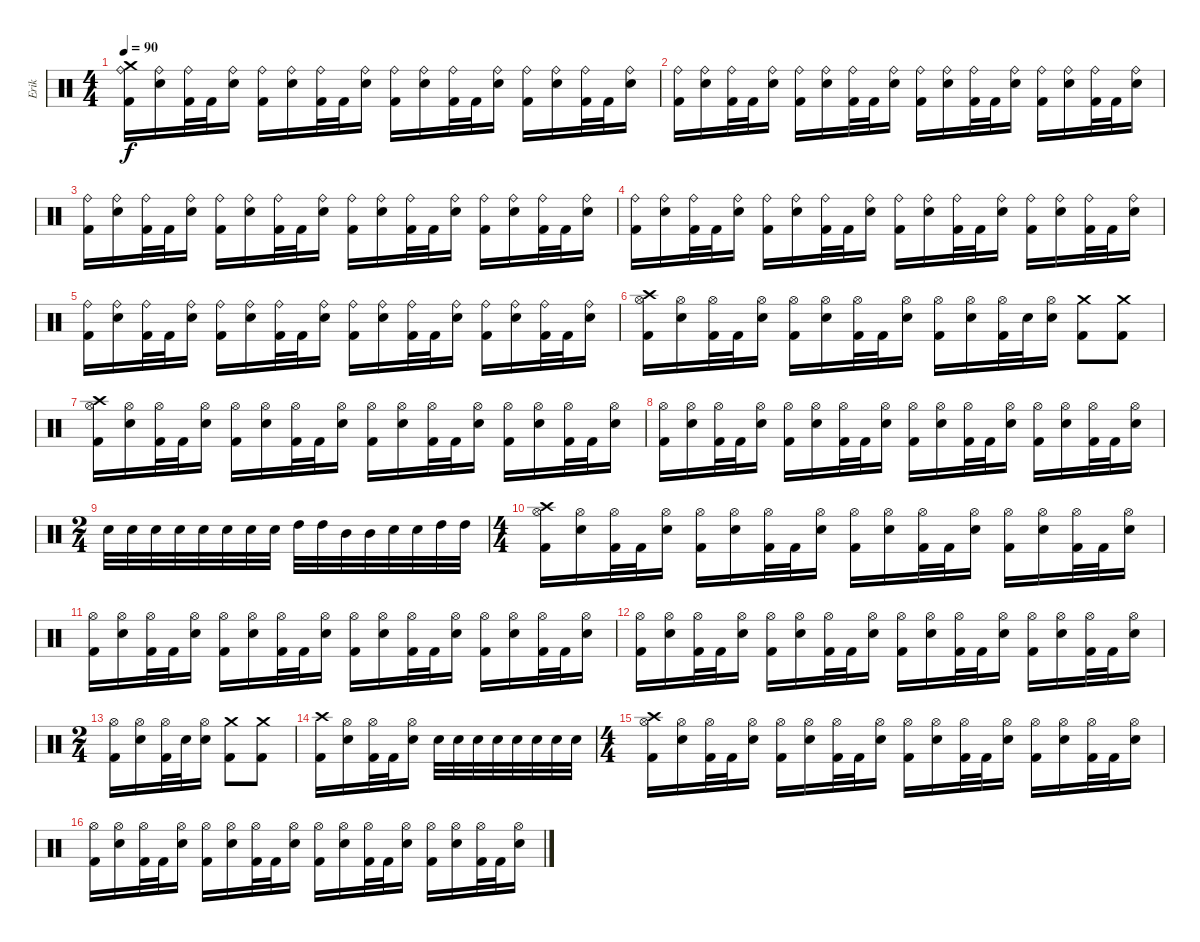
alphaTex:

\track ("Erik" "Erik") {instrument percussion}
\staff {score}
\articulation defaults
\ts (4 4)
\tempo 90
\clef neutral
\ks c
("Crash medium (hit)" "Ride (bell)" "Kick (hit) 2").16{dy f} ("Ride (bell)" "Electric Snare (hit)").16 ("Ride (bell)" "Kick (hit) 2").32 "Kick (hit) 2".32 ("Ride (bell)" "Electric Snare (hit)").16 ("Ride (bell)" "Kick (hit) 2").16 ("Ride (bell)" "Electric Snare (hit)").16 ("Ride (bell)" "Kick (hit) 2").32 "Kick (hit) 2".32 ("Ride (bell)" "Electric Snare (hit)").16 ("Ride (bell)" "Kick (hit) 2").16 ("Ride (bell)" "Electric Snare (hit)").16 ("Ride (bell)" "Kick (hit) 2").32 "Kick (hit) 2".32 ("Ride (bell)" "Electric Snare (hit)").16 ("Ride (bell)" "Kick (hit) 2").16 ("Ride (bell)" "Electric Snare (hit)").16 ("Ride (bell)" "Kick (hit) 2").32 "Kick (hit) 2".32 ("Ride (bell)" "Electric Snare (hit)").16 |
("Ride (bell)" "Kick (hit) 2").16 ("Ride (bell)" "Electric Snare (hit)").16 ("Ride (bell)" "Kick (hit) 2").32 "Kick (hit) 2".32 ("Ride (bell)" "Electric Snare (hit)").16 ("Ride (bell)" "Kick (hit) 2").16 ("Ride (bell)" "Electric Snare (hit)").16 ("Ride (bell)" "Kick (hit) 2").32 "Kick (hit) 2".32 ("Ride (bell)" "Electric Snare (hit)").16 ("Ride (bell)" "Kick (hit) 2").16 ("Ride (bell)" "Electric Snare (hit)").16 ("Ride (bell)" "Kick (hit) 2").32 "Kick (hit) 2".32 ("Ride (bell)" "Electric Snare (hit)").16 ("Ride (bell)" "Kick (hit) 2").16 ("Ride (bell)" "Electric Snare (hit)").16 ("Ride (bell)" "Kick (hit) 2").32 "Kick (hit) 2".32 ("Ride (bell)" "Electric Snare (hit)").16 |
("Ride (bell)" "Kick (hit) 2").16 ("Ride (bell)" "Electric Snare (hit)").16 ("Ride (bell)" "Kick (hit) 2").32 "Kick (hit) 2".32 ("Ride (bell)" "Electric Snare (hit)").16 ("Ride (bell)" "Kick (hit) 2").16 ("Ride (bell)" "Electric Snare (hit)").16 ("Ride (bell)" "Kick (hit) 2").32 "Kick (hit) 2".32 ("Ride (bell)" "Electric Snare (hit)").16 ("Ride (bell)" "Kick (hit) 2").16 ("Ride (bell)" "Electric Snare (hit)").16 ("Ride (bell)" "Kick (hit) 2").32 "Kick (hit) 2".32 ("Ride (bell)" "Electric Snare (hit)").16 ("Ride (bell)" "Kick (hit) 2").16 ("Ride (bell)" "Electric Snare (hit)").16 ("Ride (bell)" "Kick (hit) 2").32 "Kick (hit) 2".32 ("Ride (bell)" "Electric Snare (hit)").16 |
("Ride (bell)" "Kick (hit) 2").16 ("Ride (bell)" "Electric Snare (hit)").16 ("Ride (bell)" "Kick (hit) 2").32 "Kick (hit) 2".32 ("Ride (bell)" "Electric Snare (hit)").16 ("Ride (bell)" "Kick (hit) 2").16 ("Ride (bell)" "Electric Snare (hit)").16 ("Ride (bell)" "Kick (hit) 2").32 "Kick (hit) 2".32 ("Ride (bell)" "Electric Snare (hit)").16 ("Ride (bell)" "Kick (hit) 2").16 ("Ride (bell)" "Electric Snare (hit)").16 ("Ride (bell)" "Kick (hit) 2").32 "Kick (hit) 2".32 ("Ride (bell)" "Electric Snare (hit)").16 ("Ride (bell)" "Kick (hit) 2").16 ("Ride (bell)" "Electric Snare (hit)").16 ("Ride (bell)" "Kick (hit) 2").32 "Kick (hit) 2".32 ("Ride (bell)" "Electric Snare (hit)").16 |
("Ride (bell)" "Kick (hit) 2").16 ("Ride (bell)" "Electric Snare (hit)").16 ("Ride (bell)" "Kick (hit) 2").32 "Kick (hit) 2".32 ("Ride (bell)" "Electric Snare (hit)").16 ("Ride (bell)" "Kick (hit) 2").16 ("Ride (bell)" "Electric Snare (hit)").16 ("Ride (bell)" "Kick (hit) 2").32 "Kick (hit) 2".32 ("Ride (bell)" "Electric Snare (hit)").16 ("Ride (bell)" "Kick (hit) 2").16 ("Ride (bell)" "Electric Snare (hit)").16 ("Ride (bell)" "Kick (hit) 2").32 "Kick (hit) 2".32 ("Ride (bell)" "Electric Snare (hit)").16 ("Ride (bell)" "Kick (hit) 2").16 ("Ride (bell)" "Electric Snare (hit)").16 ("Ride (bell)" "Kick (hit) 2").32 "Kick (hit) 2".32 ("Ride (bell)" "Electric Snare (hit)").16 |
("Crash high (hit)" "Hi-Hat (open)" "Kick (hit) 2").16 ("Hi-Hat (open)" "Electric Snare (hit)").16 ("Hi-Hat (open)" "Kick (hit) 2").32 "Kick (hit) 2".32 ("Hi-Hat (open)" "Electric Snare (hit)").16 ("Hi-Hat (open)" "Kick (hit) 2").16 ("Hi-Hat (open)" "Electric Snare (hit)").16 ("Hi-Hat (open)" "Kick (hit) 2").32 "Kick (hit) 2".32 ("Hi-Hat (open)" "Electric Snare (hit)").16 ("Hi-Hat (open)" "Kick (hit) 2").16 ("Hi-Hat (open)" "Electric Snare (hit)").16 ("Hi-Hat (open)" "Kick (hit) 2").32 "Electric Snare (hit)".32 ("Hi-Hat (open)" "Electric Snare (hit)").16 ("Crash medium (hit)" "Kick (hit) 2").8 ("Crash medium (hit)" "Kick (hit) 2").8 |
("Crash high (hit)" "Hi-Hat (open)" "Kick (hit) 2").16 ("Hi-Hat (open)" "Electric Snare (hit)").16 ("Hi-Hat (open)" "Kick (hit) 2").32 "Kick (hit) 2".32 ("Hi-Hat (open)" "Electric Snare (hit)").16 ("Hi-Hat (open)" "Kick (hit) 2").16 ("Hi-Hat (open)" "Electric Snare (hit)").16 ("Hi-Hat (open)" "Kick (hit) 2").32 "Kick (hit) 2".32 ("Hi-Hat (open)" "Electric Snare (hit)").16 ("Hi-Hat (open)" "Kick (hit) 2").16 ("Hi-Hat (open)" "Electric Snare (hit)").16 ("Hi-Hat (open)" "Kick (hit) 2").32 "Kick (hit) 2".32 ("Hi-Hat (open)" "Electric Snare (hit)").16 ("Hi-Hat (open)" "Kick (hit) 2").16 ("Hi-Hat (open)" "Electric Snare (hit)").16 ("Hi-Hat (open)" "Kick (hit) 2").32 "Kick (hit) 2".32 ("Hi-Hat (open)" "Electric Snare (hit)").16 |
("Hi-Hat (open)" "Kick (hit) 2").16 ("Hi-Hat (open)" "Electric Snare (hit)").16 ("Hi-Hat (open)" "Kick (hit) 2").32 "Kick (hit) 2".32 ("Hi-Hat (open)" "Electric Snare (hit)").16 ("Hi-Hat (open)" "Kick (hit) 2").16 ("Hi-Hat (open)" "Electric Snare (hit)").16 ("Hi-Hat (open)" "Kick (hit) 2").32 "Kick (hit) 2".32 ("Hi-Hat (open)" "Electric Snare (hit)").16 ("Hi-Hat (open)" "Kick (hit) 2").16 ("Hi-Hat (open)" "Electric Snare (hit)").16 ("Hi-Hat (open)" "Kick (hit) 2").32 "Kick (hit) 2".32 ("Hi-Hat (open)" "Electric Snare (hit)").16 ("Hi-Hat (open)" "Kick (hit) 2").16 ("Hi-Hat (open)" "Electric Snare (hit)").16 ("Hi-Hat (open)" "Kick (hit) 2").32 "Kick (hit) 2".32 ("Hi-Hat (open)" "Electric Snare (hit)").16 |
\ts (2 4)
"Electric Snare (hit)".32 "Electric Snare (hit)".32 "Electric Snare (hit)".32 "Electric Snare (hit)".32 "Electric Snare (hit)".32 "Electric Snare (hit)".32 "Electric Snare (hit)".32 "Electric Snare (hit)".32 "High Tom (hit)".32 "High Tom (hit)".32 "Mid Tom (hit)".32 "Mid Tom (hit)".32 "Electric Snare (hit)".32 "Electric Snare (hit)".32 "High Tom (hit)".32 "High Tom (hit)".32 |
\ts (4 4)
("Crash high (hit)" "Hi-Hat (open)" "Kick (hit) 2").16 ("Hi-Hat (open)" "Electric Snare (hit)").16 ("Hi-Hat (open)" "Kick (hit) 2").32 "Kick (hit) 2".32 ("Hi-Hat (open)" "Electric Snare (hit)").16 ("Hi-Hat (open)" "Kick (hit) 2").16 ("Hi-Hat (open)" "Electric Snare (hit)").16 ("Hi-Hat (open)" "Kick (hit) 2").32 "Kick (hit) 2".32 ("Hi-Hat (open)" "Electric Snare (hit)").16 ("Hi-Hat (open)" "Kick (hit) 2").16 ("Hi-Hat (open)" "Electric Snare (hit)").16 ("Hi-Hat (open)" "Kick (hit) 2").32 "Kick (hit) 2".32 ("Hi-Hat (open)" "Electric Snare (hit)").16 ("Hi-Hat (open)" "Kick (hit) 2").16 ("Hi-Hat (open)" "Electric Snare (hit)").16 ("Hi-Hat (open)" "Kick (hit) 2").32 "Kick (hit) 2".32 ("Hi-Hat (open)" "Electric Snare (hit)").16 |
("Hi-Hat (open)" "Kick (hit) 2").16 ("Hi-Hat (open)" "Electric Snare (hit)").16 ("Hi-Hat (open)" "Kick (hit) 2").32 "Kick (hit) 2".32 ("Hi-Hat (open)" "Electric Snare (hit)").16 ("Hi-Hat (open)" "Kick (hit) 2").16 ("Hi-Hat (open)" "Electric Snare (hit)").16 ("Hi-Hat (open)" "Kick (hit) 2").32 "Kick (hit) 2".32 ("Hi-Hat (open)" "Electric Snare (hit)").16 ("Hi-Hat (open)" "Kick (hit) 2").16 ("Hi-Hat (open)" "Electric Snare (hit)").16 ("Hi-Hat (open)" "Kick (hit) 2").32 "Kick (hit) 2".32 ("Hi-Hat (open)" "Electric Snare (hit)").16 ("Hi-Hat (open)" "Kick (hit) 2").16 ("Hi-Hat (open)" "Electric Snare (hit)").16 ("Hi-Hat (open)" "Kick (hit) 2").32 "Kick (hit) 2".32 ("Hi-Hat (open)" "Electric Snare (hit)").16 |
("Hi-Hat (open)" "Kick (hit) 2").16 ("Hi-Hat (open)" "Electric Snare (hit)").16 ("Hi-Hat (open)" "Kick (hit) 2").32 "Kick (hit) 2".32 ("Hi-Hat (open)" "Electric Snare (hit)").16 ("Hi-Hat (open)" "Kick (hit) 2").16 ("Hi-Hat (open)" "Electric Snare (hit)").16 ("Hi-Hat (open)" "Kick (hit) 2").32 "Kick (hit) 2".32 ("Hi-Hat (open)" "Electric Snare (hit)").16 ("Hi-Hat (open)" "Kick (hit) 2").16 ("Hi-Hat (open)" "Electric Snare (hit)").16 ("Hi-Hat (open)" "Kick (hit) 2").32 "Kick (hit) 2".32 ("Hi-Hat (open)" "Electric Snare (hit)").16 ("Hi-Hat (open)" "Kick (hit) 2").16 ("Hi-Hat (open)" "Electric Snare (hit)").16 ("Hi-Hat (open)" "Kick (hit) 2").32 "Kick (hit) 2".32 ("Hi-Hat (open)" "Electric Snare (hit)").16 |
\ts (2 4)
("Hi-Hat (open)" "Kick (hit) 2").16 ("Hi-Hat (open)" "Electric Snare (hit)").16 ("Hi-Hat (open)" "Kick (hit) 2").32 "Electric Snare (hit)".32 ("Hi-Hat (open)" "Electric Snare (hit)").16 ("Crash medium (hit)" "Kick (hit) 2").8 ("Crash medium (hit)" "Kick (hit) 2").8 |
("Crash high (hit)" "Kick (hit) 2").16 ("Hi-Hat (open)" "Electric Snare (hit)").16 ("Hi-Hat (open)" "Kick (hit) 2").32 "Kick (hit) 2".32 ("Hi-Hat (open)" "Electric Snare (hit)").16 "Electric Snare (hit)".32 "Electric Snare (hit)".32 "Electric Snare (hit)".32 "Electric Snare (hit)".32 "Electric Snare (hit)".32 "Electric Snare (hit)".32 "Electric Snare (hit)".32 "Electric Snare (hit)".32 |
\ts (4 4)
("Crash high (hit)" "Hi-Hat (open)" "Kick (hit) 2").16 ("Hi-Hat (open)" "Electric Snare (hit)").16 ("Hi-Hat (open)" "Kick (hit) 2").32 "Kick (hit) 2".32 ("Hi-Hat (open)" "Electric Snare (hit)").16 ("Hi-Hat (open)" "Kick (hit) 2").16 ("Hi-Hat (open)" "Electric Snare (hit)").16 ("Hi-Hat (open)" "Kick (hit) 2").32 "Kick (hit) 2".32 ("Hi-Hat (open)" "Electric Snare (hit)").16 ("Hi-Hat (open)" "Kick (hit) 2").16 ("Hi-Hat (open)" "Electric Snare (hit)").16 ("Hi-Hat (open)" "Kick (hit) 2").32 "Kick (hit) 2".32 ("Hi-Hat (open)" "Electric Snare (hit)").16 ("Hi-Hat (open)" "Kick (hit) 2").16 ("Hi-Hat (open)" "Electric Snare (hit)").16 ("Hi-Hat (open)" "Kick (hit) 2").32 "Kick (hit) 2".32 ("Hi-Hat (open)" "Electric Snare (hit)").16 |
("Hi-Hat (open)" "Kick (hit) 2").16 ("Hi-Hat (open)" "Electric Snare (hit)").16 ("Hi-Hat (open)" "Kick (hit) 2").32 "Kick (hit) 2".32 ("Hi-Hat (open)" "Electric Snare (hit)").16 ("Hi-Hat (open)" "Kick (hit) 2").16 ("Hi-Hat (open)" "Electric Snare (hit)").16 ("Hi-Hat (open)" "Kick (hit) 2").32 "Kick (hit) 2".32 ("Hi-Hat (open)" "Electric Snare (hit)").16 ("Hi-Hat (open)" "Kick (hit) 2").16 ("Hi-Hat (open)" "Electric Snare (hit)").16 ("Hi-Hat (open)" "Kick (hit) 2").32 "Kick (hit) 2".32 ("Hi-Hat (open)" "Electric Snare (hit)").16 ("Hi-Hat (open)" "Kick (hit) 2").16 ("Hi-Hat (open)" "Electric Snare (hit)").16 ("Hi-Hat (open)" "Kick (hit) 2").32 "Kick (hit) 2".32 ("Hi-Hat (open)" "Electric Snare (hit)").16
